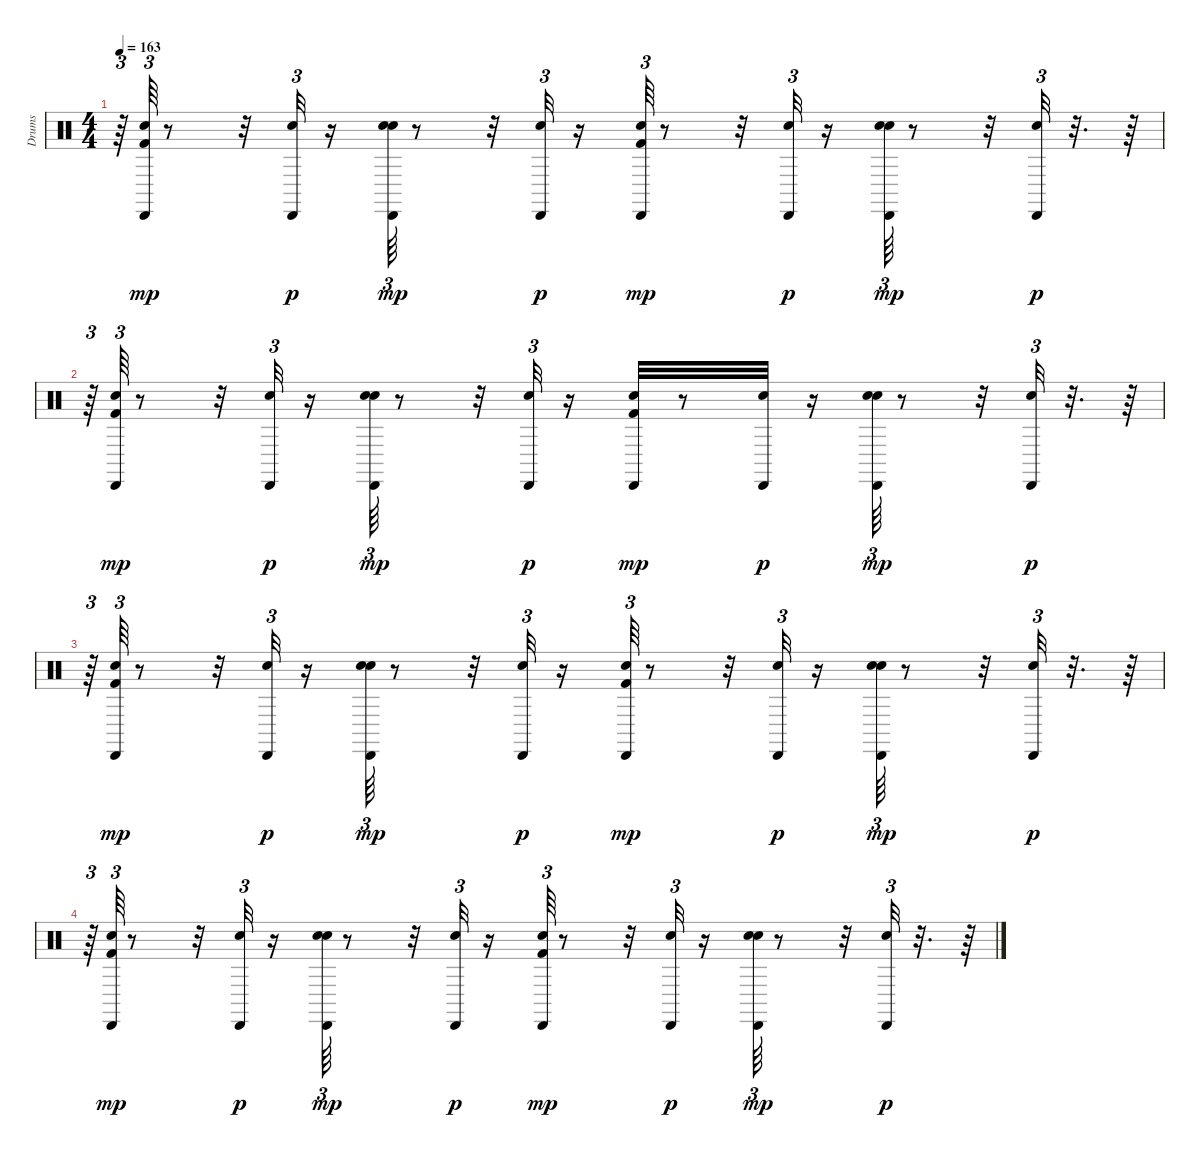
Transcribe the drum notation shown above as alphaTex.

\track ("Drums               " "Drums     ") {instrument percussion}
\staff {score}
\articulation defaults
\ts (4 4)
\tempo 163
\clef neutral
\ks c
r.64{tu (3 2) dy p} ("Kick (hit) 2" "Snare (hit) 2" "Cabasa (hit)").64{tu (3 2) dy mp} r.8 r.32 ("Snare (hit) 2" "Cabasa (hit)").32{tu (3 2) dy p} r.16 ("Snare (hit) 2" "Hand Clap (hit)" "Cabasa (hit)").64{tu (3 2) dy mp} r.8 r.32 ("Snare (hit) 2" "Cabasa (hit)").32{tu (3 2) dy p} r.16 ("Kick (hit) 2" "Snare (hit) 2" "Cabasa (hit)").64{tu (3 2) dy mp} r.8 r.32 ("Snare (hit) 2" "Cabasa (hit)").32{tu (3 2) dy p} r.16 ("Snare (hit) 2" "Hand Clap (hit)" "Cabasa (hit)").64{tu (3 2) dy mp} r.8 r.32 ("Snare (hit) 2" "Cabasa (hit)").32{tu (3 2) dy p} r.32{d} r.64 |
r.64{tu (3 2)} ("Kick (hit) 2" "Snare (hit) 2" "Cabasa (hit)").64{tu (3 2) dy mp} r.8 r.32 ("Snare (hit) 2" "Cabasa (hit)").32{tu (3 2) dy p} r.16 ("Snare (hit) 2" "Hand Clap (hit)" "Cabasa (hit)").64{tu (3 2) dy mp} r.8 r.32 ("Snare (hit) 2" "Cabasa (hit)").32{tu (3 2) dy p} r.16 ("Kick (hit) 2" "Snare (hit) 2" "Cabasa (hit)").32{dy mp} r.8 ("Snare (hit) 2" "Cabasa (hit)").32{dy p} r.16 ("Snare (hit) 2" "Hand Clap (hit)" "Cabasa (hit)").64{tu (3 2) dy mp} r.8 r.32 ("Snare (hit) 2" "Cabasa (hit)").32{tu (3 2) dy p} r.32{d} r.64 |
r.64{tu (3 2)} ("Kick (hit) 2" "Snare (hit) 2" "Cabasa (hit)").64{tu (3 2) dy mp} r.8 r.32 ("Snare (hit) 2" "Cabasa (hit)").32{tu (3 2) dy p} r.16 ("Snare (hit) 2" "Hand Clap (hit)" "Cabasa (hit)").64{tu (3 2) dy mp} r.8 r.32 ("Snare (hit) 2" "Cabasa (hit)").32{tu (3 2) dy p} r.16 ("Kick (hit) 2" "Snare (hit) 2" "Cabasa (hit)").64{tu (3 2) dy mp} r.8 r.32 ("Snare (hit) 2" "Cabasa (hit)").32{tu (3 2) dy p} r.16 ("Snare (hit) 2" "Hand Clap (hit)" "Cabasa (hit)").64{tu (3 2) dy mp} r.8 r.32 ("Snare (hit) 2" "Cabasa (hit)").32{tu (3 2) dy p} r.32{d} r.64 |
r.64{tu (3 2)} ("Kick (hit) 2" "Snare (hit) 2" "Cabasa (hit)").64{tu (3 2) dy mp} r.8 r.32 ("Snare (hit) 2" "Cabasa (hit)").32{tu (3 2) dy p} r.16 ("Snare (hit) 2" "Hand Clap (hit)" "Cabasa (hit)").64{tu (3 2) dy mp} r.8 r.32 ("Snare (hit) 2" "Cabasa (hit)").32{tu (3 2) dy p} r.16 ("Kick (hit) 2" "Snare (hit) 2" "Cabasa (hit)").64{tu (3 2) dy mp} r.8 r.32 ("Snare (hit) 2" "Cabasa (hit)").32{tu (3 2) dy p} r.16 ("Snare (hit) 2" "Hand Clap (hit)" "Cabasa (hit)").64{tu (3 2) dy mp} r.8 r.32 ("Snare (hit) 2" "Cabasa (hit)").32{tu (3 2) dy p} r.32{d} r.64
